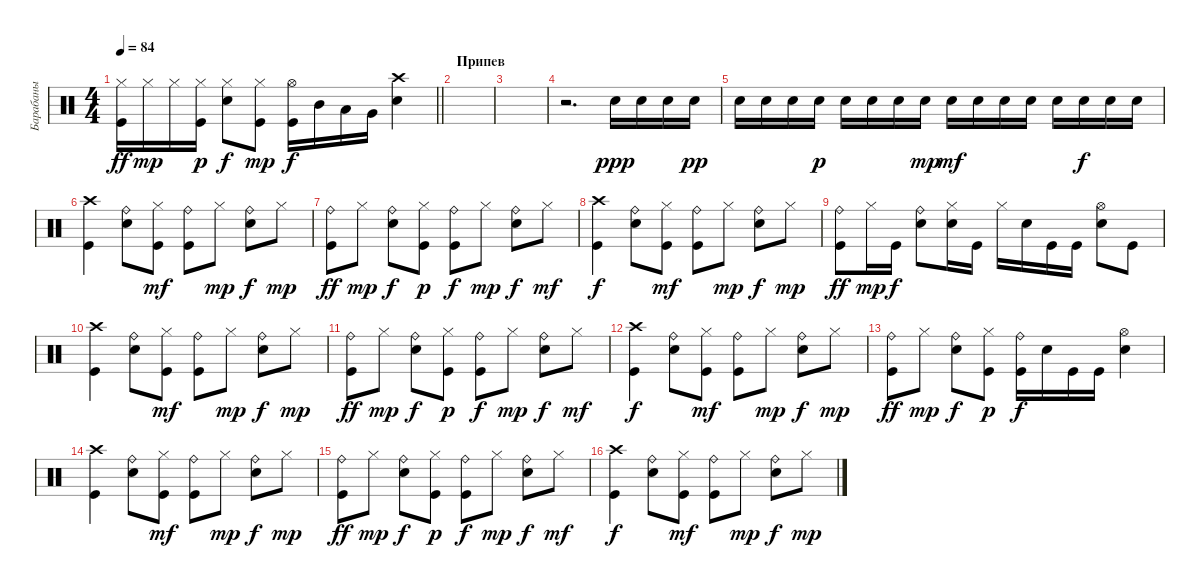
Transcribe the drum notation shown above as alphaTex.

\track ("Барабаны" "Барабаны") {instrument percussion}
\staff {score}
\articulation defaults
\ts (4 4)
\tempo 84
\clef neutral
\barLineRight lightlight
\ks c
("Hi-Hat (closed)" "Kick (hit)").16{dy ff} "Hi-Hat (closed)".16{dy mp} "Hi-Hat (closed)".16 ("Hi-Hat (closed)" "Kick (hit)").16{dy p} ("Hi-Hat (closed)" "Electric Snare (hit)").8{dy f} ("Hi-Hat (closed)" "Kick (hit)").8{dy mp} ("Hi-Hat (open)" "Kick (hit)").16{dy f} "Mid Tom (hit)".16 "Low Tom (hit)".16 "Very Low Tom (hit)".16 ("Crash high (hit)" "Electric Snare (hit)").4 |
\section ("" "Припев")
|
|
r.2{d} "Electric Snare (hit)".16{dy ppp volume 1} "Electric Snare (hit)".16{volume 2} "Electric Snare (hit)".16{volume 3} "Electric Snare (hit)".16{dy pp volume 4} |
"Electric Snare (hit)".16{volume 5} "Electric Snare (hit)".16{volume 6} "Electric Snare (hit)".16{volume 7} "Electric Snare (hit)".16{dy p volume 8} "Electric Snare (hit)".16{volume 9} "Electric Snare (hit)".16{volume 10} "Electric Snare (hit)".16{volume 11} "Electric Snare (hit)".16{dy mp volume 13} "Electric Snare (hit)".16{dy mf} "Electric Snare (hit)".16 "Electric Snare (hit)".16 "Electric Snare (hit)".16 "Electric Snare (hit)".16 "Electric Snare (hit)".16{dy f} "Electric Snare (hit)".16 "Electric Snare (hit)".16 |
("Crash high (hit)" "Kick (hit)").4 ("Ride (bell)" "Electric Snare (hit)").8 ("Hi-Hat (closed)" "Kick (hit)").8{dy mf} ("Ride (bell)" "Kick (hit)").8 "Hi-Hat (closed)".8{dy mp} ("Ride (bell)" "Electric Snare (hit)").8{dy f} "Hi-Hat (closed)".8{dy mp} |
("Ride (bell)" "Kick (hit)").8{dy ff} "Hi-Hat (closed)".8{dy mp} ("Ride (bell)" "Electric Snare (hit)").8{dy f} ("Hi-Hat (closed)" "Kick (hit)").8{dy p} ("Ride (bell)" "Kick (hit)").8{dy f} "Hi-Hat (closed)".8{dy mp} ("Ride (bell)" "Electric Snare (hit)").8{dy f} "Hi-Hat (closed)".8{dy mf} |
("Crash high (hit)" "Kick (hit)").4{dy f} ("Ride (bell)" "Electric Snare (hit)").8 ("Hi-Hat (closed)" "Kick (hit)").8{dy mf} ("Ride (bell)" "Kick (hit)").8 "Hi-Hat (closed)".8{dy mp} ("Ride (bell)" "Electric Snare (hit)").8{dy f} "Hi-Hat (closed)".8{dy mp} |
("Ride (bell)" "Kick (hit)").8{dy ff} "Hi-Hat (closed)".16{dy mp} "Kick (hit)".16{dy f} ("Ride (bell)" "Electric Snare (hit)").8 ("Hi-Hat (closed)" "Electric Snare (hit)").16 "Kick (hit)".16 "Hi-Hat (closed)".16 "Electric Snare (hit)".16 "Kick (hit)".16 "Kick (hit)".16 ("Hi-Hat (open)" "Electric Snare (hit)").8 "Kick (hit)".8 |
("Crash high (hit)" "Kick (hit)").4 ("Ride (bell)" "Electric Snare (hit)").8 ("Hi-Hat (closed)" "Kick (hit)").8{dy mf} ("Ride (bell)" "Kick (hit)").8 "Hi-Hat (closed)".8{dy mp} ("Ride (bell)" "Electric Snare (hit)").8{dy f} "Hi-Hat (closed)".8{dy mp} |
("Ride (bell)" "Kick (hit)").8{dy ff} "Hi-Hat (closed)".8{dy mp} ("Ride (bell)" "Electric Snare (hit)").8{dy f} ("Hi-Hat (closed)" "Kick (hit)").8{dy p} ("Ride (bell)" "Kick (hit)").8{dy f} "Hi-Hat (closed)".8{dy mp} ("Ride (bell)" "Electric Snare (hit)").8{dy f} "Hi-Hat (closed)".8{dy mf} |
("Crash high (hit)" "Kick (hit)").4{dy f} ("Ride (bell)" "Electric Snare (hit)").8 ("Hi-Hat (closed)" "Kick (hit)").8{dy mf} ("Ride (bell)" "Kick (hit)").8 "Hi-Hat (closed)".8{dy mp} ("Ride (bell)" "Electric Snare (hit)").8{dy f} "Hi-Hat (closed)".8{dy mp} |
("Ride (bell)" "Kick (hit)").8{dy ff} "Hi-Hat (closed)".8{dy mp} ("Ride (bell)" "Electric Snare (hit)").8{dy f} ("Hi-Hat (closed)" "Kick (hit)").8{dy p} ("Ride (bell)" "Kick (hit)").16{dy f} "Electric Snare (hit)".16 "Kick (hit)".16 "Kick (hit)".16 ("Hi-Hat (open)" "Electric Snare (hit)").4 |
("Crash high (hit)" "Kick (hit)").4 ("Ride (bell)" "Electric Snare (hit)").8 ("Hi-Hat (closed)" "Kick (hit)").8{dy mf} ("Ride (bell)" "Kick (hit)").8 "Hi-Hat (closed)".8{dy mp} ("Ride (bell)" "Electric Snare (hit)").8{dy f} "Hi-Hat (closed)".8{dy mp} |
("Ride (bell)" "Kick (hit)").8{dy ff} "Hi-Hat (closed)".8{dy mp} ("Ride (bell)" "Electric Snare (hit)").8{dy f} ("Hi-Hat (closed)" "Kick (hit)").8{dy p} ("Ride (bell)" "Kick (hit)").8{dy f} "Hi-Hat (closed)".8{dy mp} ("Ride (bell)" "Electric Snare (hit)").8{dy f} "Hi-Hat (closed)".8{dy mf} |
("Crash high (hit)" "Kick (hit)").4{dy f} ("Ride (bell)" "Electric Snare (hit)").8 ("Hi-Hat (closed)" "Kick (hit)").8{dy mf} ("Ride (bell)" "Kick (hit)").8 "Hi-Hat (closed)".8{dy mp} ("Ride (bell)" "Electric Snare (hit)").8{dy f} "Hi-Hat (closed)".8{dy mp}
